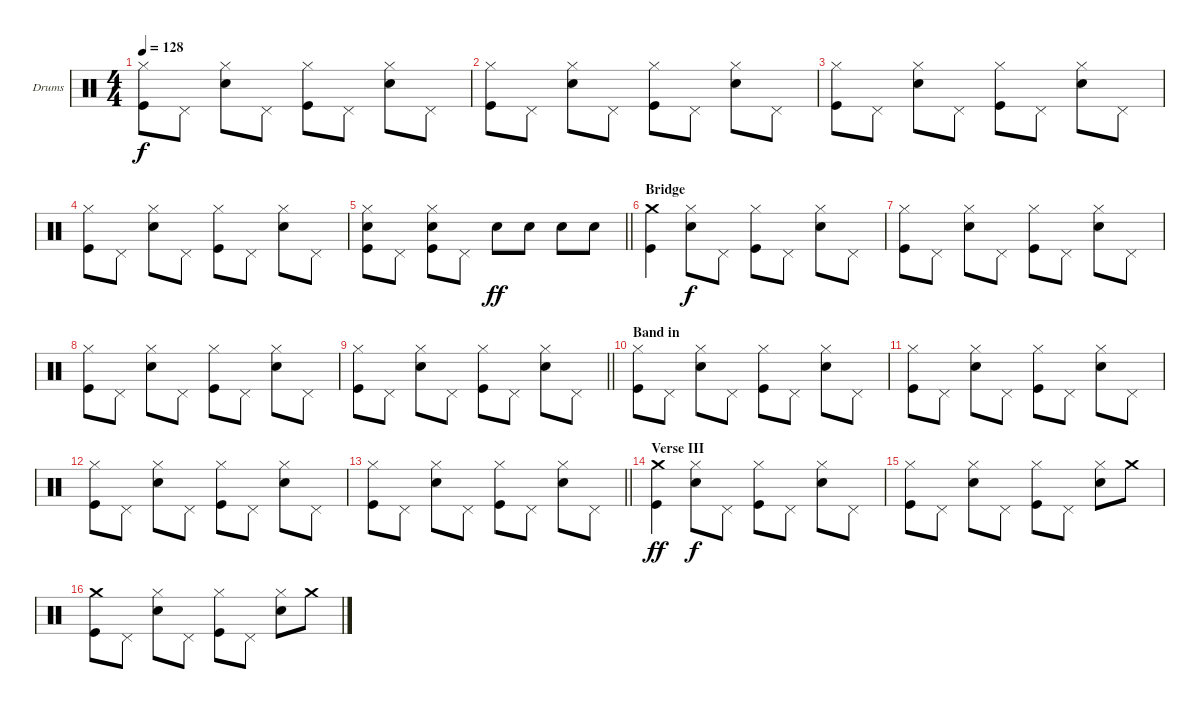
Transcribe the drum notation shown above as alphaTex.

\bracketExtendMode groupsimilarinstruments
\firstSystemTrackNameOrientation horizontal
\otherSystemsTrackNameOrientation horizontal
\track ("Drumkit" "Drums") {instrument percussion}
\staff {score}
\articulation defaults
\ts (4 4)
\tempo 128
\clef neutral
\ks c
("Hi-Hat (closed)" "Kick (hit)").8{dy f} "Pedal Hi-Hat (hit)".8 ("Hi-Hat (closed)" "Snare (hit) 2").8 "Pedal Hi-Hat (hit)".8 ("Hi-Hat (closed)" "Kick (hit)").8 "Pedal Hi-Hat (hit)".8 ("Hi-Hat (closed)" "Snare (hit) 2").8 "Pedal Hi-Hat (hit)".8 |
("Hi-Hat (closed)" "Kick (hit)").8 "Pedal Hi-Hat (hit)".8 ("Hi-Hat (closed)" "Snare (hit) 2").8 "Pedal Hi-Hat (hit)".8 ("Hi-Hat (closed)" "Kick (hit)").8 "Pedal Hi-Hat (hit)".8 ("Hi-Hat (closed)" "Snare (hit) 2").8 "Pedal Hi-Hat (hit)".8 |
("Hi-Hat (closed)" "Kick (hit)").8 "Pedal Hi-Hat (hit)".8 ("Hi-Hat (closed)" "Snare (hit) 2").8 "Pedal Hi-Hat (hit)".8 ("Hi-Hat (closed)" "Kick (hit)").8 "Pedal Hi-Hat (hit)".8 ("Hi-Hat (closed)" "Snare (hit) 2").8 "Pedal Hi-Hat (hit)".8 |
("Hi-Hat (closed)" "Kick (hit)").8 "Pedal Hi-Hat (hit)".8 ("Hi-Hat (closed)" "Snare (hit) 2").8 "Pedal Hi-Hat (hit)".8 ("Hi-Hat (closed)" "Kick (hit)").8 "Pedal Hi-Hat (hit)".8 ("Hi-Hat (closed)" "Snare (hit) 2").8 "Pedal Hi-Hat (hit)".8 |
\barLineRight lightlight
("Hi-Hat (closed)" "Snare (hit) 2" "Kick (hit)").8 "Pedal Hi-Hat (hit)".8 ("Hi-Hat (closed)" "Snare (hit) 2" "Kick (hit)").8 "Pedal Hi-Hat (hit)".8 "Snare (hit) 2".8{dy ff} "Snare (hit) 2".8 "Snare (hit) 2".8 "Snare (hit) 2".8 |
\section ("" "Bridge")
("Crash medium (hit)" "Kick (hit)").4 ("Hi-Hat (closed)" "Snare (hit) 2").8{dy f} "Pedal Hi-Hat (hit)".8 ("Hi-Hat (closed)" "Kick (hit)").8 "Pedal Hi-Hat (hit)".8 ("Hi-Hat (closed)" "Snare (hit) 2").8 "Pedal Hi-Hat (hit)".8 |
("Hi-Hat (closed)" "Kick (hit)").8 "Pedal Hi-Hat (hit)".8 ("Hi-Hat (closed)" "Snare (hit) 2").8 "Pedal Hi-Hat (hit)".8 ("Hi-Hat (closed)" "Kick (hit)").8 "Pedal Hi-Hat (hit)".8 ("Hi-Hat (closed)" "Snare (hit) 2").8 "Pedal Hi-Hat (hit)".8 |
("Hi-Hat (closed)" "Kick (hit)").8 "Pedal Hi-Hat (hit)".8 ("Hi-Hat (closed)" "Snare (hit) 2").8 "Pedal Hi-Hat (hit)".8 ("Hi-Hat (closed)" "Kick (hit)").8 "Pedal Hi-Hat (hit)".8 ("Hi-Hat (closed)" "Snare (hit) 2").8 "Pedal Hi-Hat (hit)".8 |
\barLineRight lightlight
("Hi-Hat (closed)" "Kick (hit)").8 "Pedal Hi-Hat (hit)".8 ("Hi-Hat (closed)" "Snare (hit) 2").8 "Pedal Hi-Hat (hit)".8 ("Hi-Hat (closed)" "Kick (hit)").8 "Pedal Hi-Hat (hit)".8 ("Hi-Hat (closed)" "Snare (hit) 2").8 "Pedal Hi-Hat (hit)".8 |
\section ("" "Band in")
("Hi-Hat (closed)" "Kick (hit)").8 "Pedal Hi-Hat (hit)".8 ("Hi-Hat (closed)" "Snare (hit) 2").8 "Pedal Hi-Hat (hit)".8 ("Hi-Hat (closed)" "Kick (hit)").8 "Pedal Hi-Hat (hit)".8 ("Hi-Hat (closed)" "Snare (hit) 2").8 "Pedal Hi-Hat (hit)".8 |
("Hi-Hat (closed)" "Kick (hit)").8 "Pedal Hi-Hat (hit)".8 ("Hi-Hat (closed)" "Snare (hit) 2").8 "Pedal Hi-Hat (hit)".8 ("Hi-Hat (closed)" "Kick (hit)").8 "Pedal Hi-Hat (hit)".8 ("Hi-Hat (closed)" "Snare (hit) 2").8 "Pedal Hi-Hat (hit)".8 |
("Hi-Hat (closed)" "Kick (hit)").8 "Pedal Hi-Hat (hit)".8 ("Hi-Hat (closed)" "Snare (hit) 2").8 "Pedal Hi-Hat (hit)".8 ("Hi-Hat (closed)" "Kick (hit)").8 "Pedal Hi-Hat (hit)".8 ("Hi-Hat (closed)" "Snare (hit) 2").8 "Pedal Hi-Hat (hit)".8 |
\barLineRight lightlight
("Hi-Hat (closed)" "Kick (hit)").8 "Pedal Hi-Hat (hit)".8 ("Hi-Hat (closed)" "Snare (hit) 2").8 "Pedal Hi-Hat (hit)".8 ("Hi-Hat (closed)" "Kick (hit)").8 "Pedal Hi-Hat (hit)".8 ("Hi-Hat (closed)" "Snare (hit) 2").8 "Pedal Hi-Hat (hit)".8 |
\section ("" "Verse III")
("Crash medium (hit)" "Kick (hit)").4{dy ff} ("Hi-Hat (closed)" "Snare (hit) 2").8{dy f} "Pedal Hi-Hat (hit)".8 ("Hi-Hat (closed)" "Kick (hit)").8 "Pedal Hi-Hat (hit)".8 ("Hi-Hat (closed)" "Snare (hit) 2").8 "Pedal Hi-Hat (hit)".8 |
("Hi-Hat (closed)" "Kick (hit)").8 "Pedal Hi-Hat (hit)".8 ("Hi-Hat (closed)" "Snare (hit) 2").8 "Pedal Hi-Hat (hit)".8 ("Hi-Hat (closed)" "Kick (hit)").8 "Pedal Hi-Hat (hit)".8 ("Hi-Hat (closed)" "Snare (hit) 2").8 "Crash medium (hit)".8 |
("Crash medium (hit)" "Kick (hit)").8 "Pedal Hi-Hat (hit)".8 ("Hi-Hat (closed)" "Snare (hit) 2").8 "Pedal Hi-Hat (hit)".8 ("Hi-Hat (closed)" "Kick (hit)").8 "Pedal Hi-Hat (hit)".8 ("Hi-Hat (closed)" "Snare (hit) 2").8 "Crash medium (hit)".8
